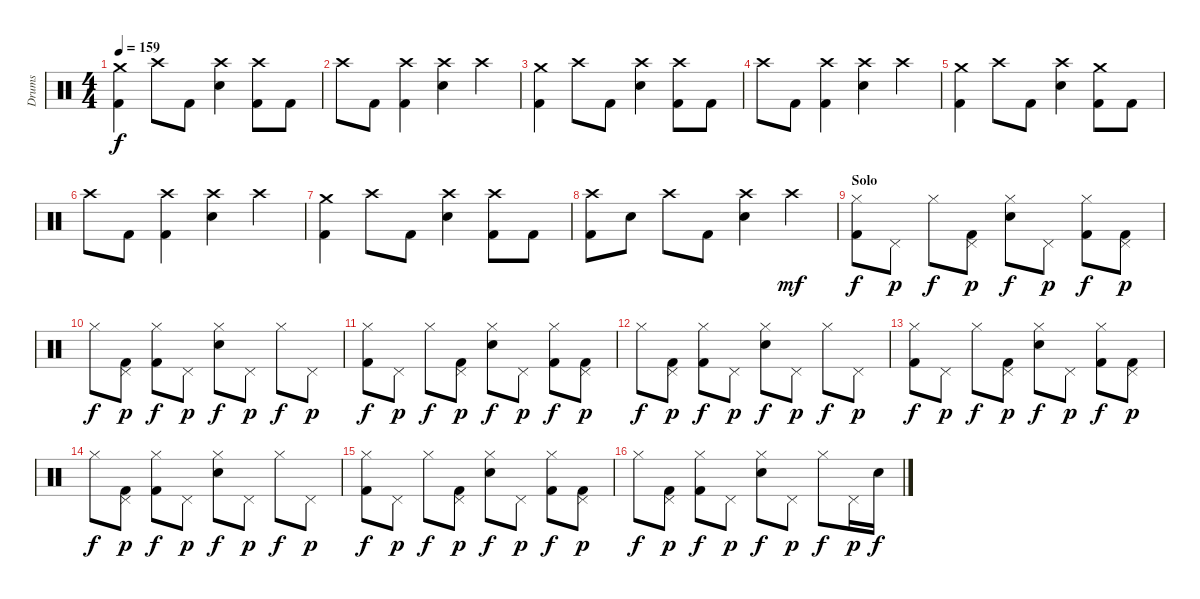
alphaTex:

\track ("Drums" "Drums") {instrument percussion}
\staff {score}
\articulation defaults
\ts (4 4)
\tempo 159
\clef neutral
\ks c
("Crash medium (hit)" "Kick (hit) 2").4{dy f} "Crash high (hit)".8 "Kick (hit) 2".8 ("Crash high (hit)" "Electric Snare (hit)").4 ("Crash high (hit)" "Kick (hit) 2").8 "Kick (hit) 2".8 |
"Crash high (hit)".8 "Kick (hit) 2".8 ("Crash high (hit)" "Kick (hit) 2").4 ("Crash high (hit)" "Electric Snare (hit)").4 "Crash high (hit)".4 |
("Crash medium (hit)" "Kick (hit) 2").4 "Crash high (hit)".8 "Kick (hit) 2".8 ("Crash high (hit)" "Electric Snare (hit)").4 ("Crash high (hit)" "Kick (hit) 2").8 "Kick (hit) 2".8 |
"Crash high (hit)".8 "Kick (hit) 2".8 ("Crash high (hit)" "Kick (hit) 2").4 ("Crash high (hit)" "Electric Snare (hit)").4 "Crash high (hit)".4 |
("Crash medium (hit)" "Kick (hit) 2").4 "Crash high (hit)".8 "Kick (hit) 2".8 ("Crash high (hit)" "Electric Snare (hit)").4 ("Crash medium (hit)" "Kick (hit) 2").8 "Kick (hit) 2".8 |
"Crash high (hit)".8 "Kick (hit) 2".8 ("Crash high (hit)" "Kick (hit) 2").4 ("Crash high (hit)" "Electric Snare (hit)").4 "Crash high (hit)".4 |
("Crash medium (hit)" "Kick (hit) 2").4 "Crash high (hit)".8 "Kick (hit) 2".8 ("Crash high (hit)" "Electric Snare (hit)").4 ("Crash high (hit)" "Kick (hit) 2").8 "Kick (hit) 2".8 |
("Crash high (hit)" "Kick (hit) 2").8 "Electric Snare (hit)".8 "Crash high (hit)".8 "Kick (hit) 2".8 ("Crash high (hit)" "Electric Snare (hit)").4 "Crash high (hit)".4{dy mf} |
\section ("" "Solo")
("Hi-Hat (closed)" "Kick (hit) 2").8{dy f} "Pedal Hi-Hat (hit)".8{dy p} "Hi-Hat (closed)".8{dy f} ("Pedal Hi-Hat (hit)" "Kick (hit) 2").8{dy p} ("Hi-Hat (closed)" "Electric Snare (hit)").8{dy f} "Pedal Hi-Hat (hit)".8{dy p} ("Hi-Hat (closed)" "Kick (hit) 2").8{dy f} ("Pedal Hi-Hat (hit)" "Kick (hit) 2").8{dy p} |
"Hi-Hat (closed)".8{dy f} ("Pedal Hi-Hat (hit)" "Kick (hit) 2").8{dy p} ("Hi-Hat (closed)" "Kick (hit) 2").8{dy f} "Pedal Hi-Hat (hit)".8{dy p} ("Hi-Hat (closed)" "Electric Snare (hit)").8{dy f} "Pedal Hi-Hat (hit)".8{dy p} "Hi-Hat (closed)".8{dy f} "Pedal Hi-Hat (hit)".8{dy p} |
("Hi-Hat (closed)" "Kick (hit) 2").8{dy f} "Pedal Hi-Hat (hit)".8{dy p} "Hi-Hat (closed)".8{dy f} ("Pedal Hi-Hat (hit)" "Kick (hit) 2").8{dy p} ("Hi-Hat (closed)" "Electric Snare (hit)").8{dy f} "Pedal Hi-Hat (hit)".8{dy p} ("Hi-Hat (closed)" "Kick (hit) 2").8{dy f} ("Pedal Hi-Hat (hit)" "Kick (hit) 2").8{dy p} |
"Hi-Hat (closed)".8{dy f} ("Pedal Hi-Hat (hit)" "Kick (hit) 2").8{dy p} ("Hi-Hat (closed)" "Kick (hit) 2").8{dy f} "Pedal Hi-Hat (hit)".8{dy p} ("Hi-Hat (closed)" "Electric Snare (hit)").8{dy f} "Pedal Hi-Hat (hit)".8{dy p} "Hi-Hat (closed)".8{dy f} "Pedal Hi-Hat (hit)".8{dy p} |
("Hi-Hat (closed)" "Kick (hit) 2").8{dy f} "Pedal Hi-Hat (hit)".8{dy p} "Hi-Hat (closed)".8{dy f} ("Pedal Hi-Hat (hit)" "Kick (hit) 2").8{dy p} ("Hi-Hat (closed)" "Electric Snare (hit)").8{dy f} "Pedal Hi-Hat (hit)".8{dy p} ("Hi-Hat (closed)" "Kick (hit) 2").8{dy f} ("Pedal Hi-Hat (hit)" "Kick (hit) 2").8{dy p} |
"Hi-Hat (closed)".8{dy f} ("Pedal Hi-Hat (hit)" "Kick (hit) 2").8{dy p} ("Hi-Hat (closed)" "Kick (hit) 2").8{dy f} "Pedal Hi-Hat (hit)".8{dy p} ("Hi-Hat (closed)" "Electric Snare (hit)").8{dy f} "Pedal Hi-Hat (hit)".8{dy p} "Hi-Hat (closed)".8{dy f} "Pedal Hi-Hat (hit)".8{dy p} |
("Hi-Hat (closed)" "Kick (hit) 2").8{dy f} "Pedal Hi-Hat (hit)".8{dy p} "Hi-Hat (closed)".8{dy f} ("Pedal Hi-Hat (hit)" "Kick (hit) 2").8{dy p} ("Hi-Hat (closed)" "Electric Snare (hit)").8{dy f} "Pedal Hi-Hat (hit)".8{dy p} ("Hi-Hat (closed)" "Kick (hit) 2").8{dy f} ("Pedal Hi-Hat (hit)" "Kick (hit) 2").8{dy p} |
"Hi-Hat (closed)".8{dy f} ("Pedal Hi-Hat (hit)" "Kick (hit) 2").8{dy p} ("Hi-Hat (closed)" "Kick (hit) 2").8{dy f} "Pedal Hi-Hat (hit)".8{dy p} ("Hi-Hat (closed)" "Electric Snare (hit)").8{dy f} "Pedal Hi-Hat (hit)".8{dy p} "Hi-Hat (closed)".8{dy f} "Pedal Hi-Hat (hit)".16{dy p} "Electric Snare (hit)".16{dy f}
